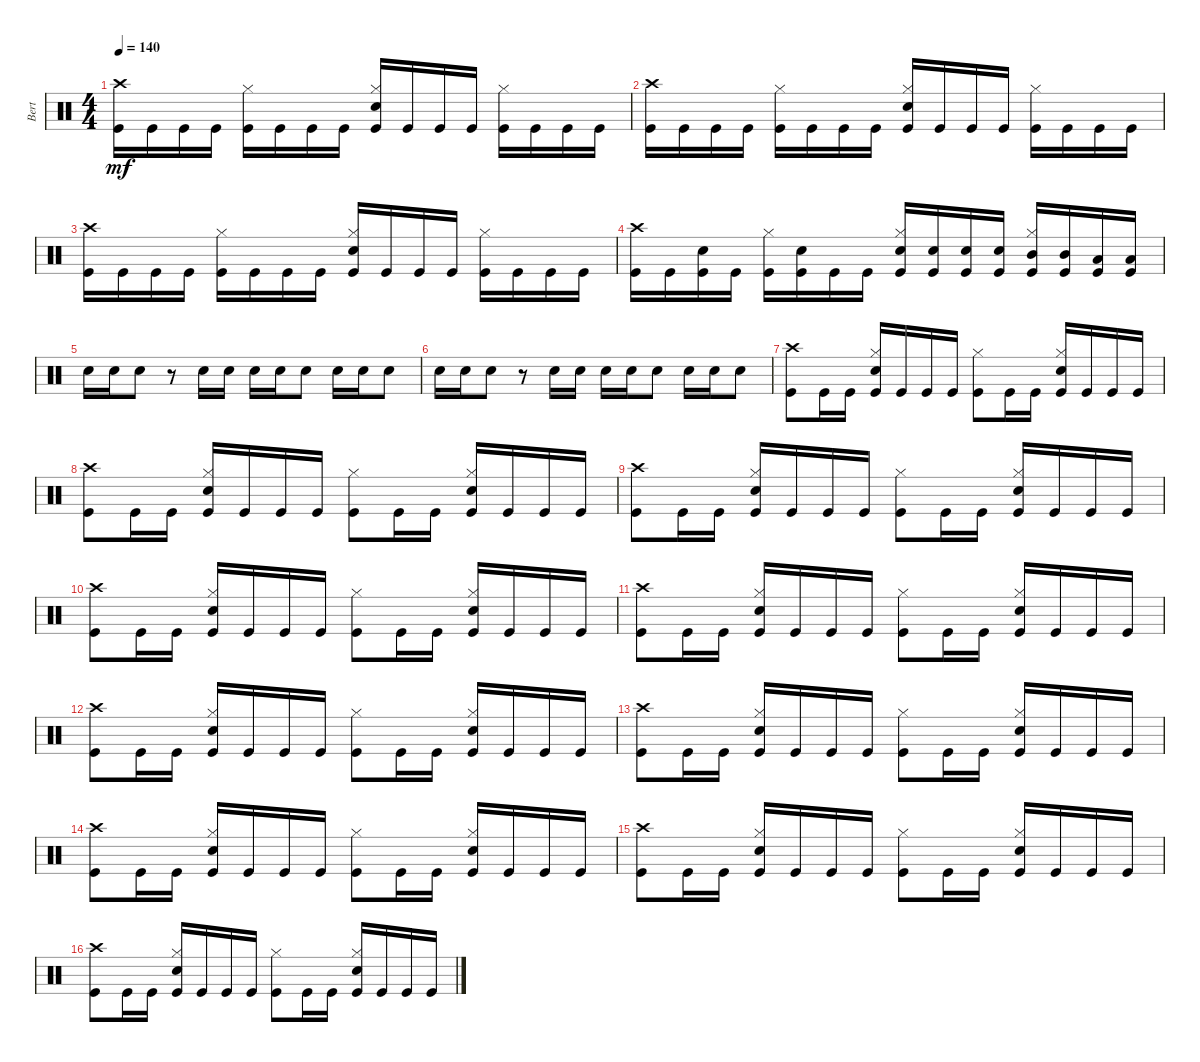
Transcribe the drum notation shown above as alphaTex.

\track ("Bert" "Bert") {instrument percussion}
\staff {score}
\articulation defaults
\ts (4 4)
\tempo 140
\clef neutral
\ks c
("Kick (hit)" "Crash high (hit)").16{dy mf} "Kick (hit)".16 "Kick (hit)".16 "Kick (hit)".16 ("Hi-Hat (closed)" "Kick (hit)").16 "Kick (hit)".16 "Kick (hit)".16 "Kick (hit)".16 ("Hi-Hat (closed)" "Electric Snare (hit)" "Kick (hit)").16 "Kick (hit)".16 "Kick (hit)".16 "Kick (hit)".16 ("Hi-Hat (closed)" "Kick (hit)").16 "Kick (hit)".16 "Kick (hit)".16 "Kick (hit)".16 |
("Crash high (hit)" "Kick (hit)").16 "Kick (hit)".16 "Kick (hit)".16 "Kick (hit)".16 ("Hi-Hat (closed)" "Kick (hit)").16 "Kick (hit)".16 "Kick (hit)".16 "Kick (hit)".16 ("Kick (hit)" "Electric Snare (hit)" "Hi-Hat (closed)").16 "Kick (hit)".16 "Kick (hit)".16 "Kick (hit)".16 ("Kick (hit)" "Hi-Hat (closed)").16 "Kick (hit)".16 "Kick (hit)".16 "Kick (hit)".16 |
("Kick (hit)" "Crash high (hit)").16 "Kick (hit)".16 "Kick (hit)".16 "Kick (hit)".16 ("Kick (hit)" "Hi-Hat (closed)").16 "Kick (hit)".16 "Kick (hit)".16 "Kick (hit)".16 ("Electric Snare (hit)" "Hi-Hat (closed)" "Kick (hit)").16 "Kick (hit)".16 "Kick (hit)".16 "Kick (hit)".16 ("Hi-Hat (closed)" "Kick (hit)").16 "Kick (hit)".16 "Kick (hit)".16 "Kick (hit)".16 |
("Kick (hit)" "Crash high (hit)").16 "Kick (hit)".16 ("Electric Snare (hit)" "Kick (hit)").16 "Kick (hit)".16 ("Hi-Hat (closed)" "Kick (hit)").16 ("Electric Snare (hit)" "Kick (hit)").16 "Kick (hit)".16 "Kick (hit)".16 ("Kick (hit)" "Hi-Hat (closed)" "Electric Snare (hit)").16 ("Kick (hit)" "Electric Snare (hit)").16 ("Kick (hit)" "Electric Snare (hit)").16 ("Electric Snare (hit)" "Kick (hit)").16 ("Kick (hit)" "Mid Tom (hit)" "Hi-Hat (closed)").16 ("Kick (hit)" "Mid Tom (hit)").16 ("Low Tom (hit)" "Kick (hit)").16 ("Low Tom (hit)" "Kick (hit)").16 |
"Electric Snare (hit)".16 "Electric Snare (hit)".16 "Electric Snare (hit)".8 r.8 "Electric Snare (hit)".16 "Electric Snare (hit)".16 "Electric Snare (hit)".16 "Electric Snare (hit)".16 "Electric Snare (hit)".8 "Electric Snare (hit)".16 "Electric Snare (hit)".16 "Electric Snare (hit)".8 |
"Electric Snare (hit)".16 "Electric Snare (hit)".16 "Electric Snare (hit)".8 r.8 "Electric Snare (hit)".16 "Electric Snare (hit)".16 "Electric Snare (hit)".16 "Electric Snare (hit)".16 "Electric Snare (hit)".8 "Electric Snare (hit)".16 "Electric Snare (hit)".16 "Electric Snare (hit)".8 |
("Kick (hit)" "Crash high (hit)").8 "Kick (hit)".16 "Kick (hit)".16 ("Hi-Hat (closed)" "Electric Snare (hit)" "Kick (hit)").16 "Kick (hit)".16 "Kick (hit)".16 "Kick (hit)".16 ("Kick (hit)" "Hi-Hat (closed)").8 "Kick (hit)".16 "Kick (hit)".16 ("Kick (hit)" "Electric Snare (hit)" "Hi-Hat (closed)").16 "Kick (hit)".16 "Kick (hit)".16 "Kick (hit)".16 |
("Kick (hit)" "Crash high (hit)").8 "Kick (hit)".16 "Kick (hit)".16 ("Kick (hit)" "Electric Snare (hit)" "Hi-Hat (closed)").16 "Kick (hit)".16 "Kick (hit)".16 "Kick (hit)".16 ("Kick (hit)" "Hi-Hat (closed)").8 "Kick (hit)".16 "Kick (hit)".16 ("Kick (hit)" "Electric Snare (hit)" "Hi-Hat (closed)").16 "Kick (hit)".16 "Kick (hit)".16 "Kick (hit)".16 |
("Kick (hit)" "Crash high (hit)").8 "Kick (hit)".16 "Kick (hit)".16 ("Kick (hit)" "Hi-Hat (closed)" "Electric Snare (hit)").16 "Kick (hit)".16 "Kick (hit)".16 "Kick (hit)".16 ("Kick (hit)" "Hi-Hat (closed)").8 "Kick (hit)".16 "Kick (hit)".16 ("Hi-Hat (closed)" "Kick (hit)" "Electric Snare (hit)").16 "Kick (hit)".16 "Kick (hit)".16 "Kick (hit)".16 |
("Kick (hit)" "Crash high (hit)").8 "Kick (hit)".16 "Kick (hit)".16 ("Hi-Hat (closed)" "Electric Snare (hit)" "Kick (hit)").16 "Kick (hit)".16 "Kick (hit)".16 "Kick (hit)".16 ("Hi-Hat (closed)" "Kick (hit)").8 "Kick (hit)".16 "Kick (hit)".16 ("Kick (hit)" "Electric Snare (hit)" "Hi-Hat (closed)").16 "Kick (hit)".16 "Kick (hit)".16 "Kick (hit)".16 |
("Kick (hit)" "Crash high (hit)").8 "Kick (hit)".16 "Kick (hit)".16 ("Electric Snare (hit)" "Hi-Hat (closed)" "Kick (hit)").16 "Kick (hit)".16 "Kick (hit)".16 "Kick (hit)".16 ("Kick (hit)" "Hi-Hat (closed)").8 "Kick (hit)".16 "Kick (hit)".16 ("Kick (hit)" "Hi-Hat (closed)" "Electric Snare (hit)").16 "Kick (hit)".16 "Kick (hit)".16 "Kick (hit)".16 |
("Kick (hit)" "Crash high (hit)").8 "Kick (hit)".16 "Kick (hit)".16 ("Hi-Hat (closed)" "Kick (hit)" "Electric Snare (hit)").16 "Kick (hit)".16 "Kick (hit)".16 "Kick (hit)".16 ("Hi-Hat (closed)" "Kick (hit)").8 "Kick (hit)".16 "Kick (hit)".16 ("Electric Snare (hit)" "Kick (hit)" "Hi-Hat (closed)").16 "Kick (hit)".16 "Kick (hit)".16 "Kick (hit)".16 |
("Crash high (hit)" "Kick (hit)").8 "Kick (hit)".16 "Kick (hit)".16 ("Hi-Hat (closed)" "Electric Snare (hit)" "Kick (hit)").16 "Kick (hit)".16 "Kick (hit)".16 "Kick (hit)".16 ("Kick (hit)" "Hi-Hat (closed)").8 "Kick (hit)".16 "Kick (hit)".16 ("Electric Snare (hit)" "Kick (hit)" "Hi-Hat (closed)").16 "Kick (hit)".16 "Kick (hit)".16 "Kick (hit)".16 |
("Crash high (hit)" "Kick (hit)").8 "Kick (hit)".16 "Kick (hit)".16 ("Kick (hit)" "Electric Snare (hit)" "Hi-Hat (closed)").16 "Kick (hit)".16 "Kick (hit)".16 "Kick (hit)".16 ("Hi-Hat (closed)" "Kick (hit)").8 "Kick (hit)".16 "Kick (hit)".16 ("Electric Snare (hit)" "Kick (hit)" "Hi-Hat (closed)").16 "Kick (hit)".16 "Kick (hit)".16 "Kick (hit)".16 |
("Kick (hit)" "Crash high (hit)").8 "Kick (hit)".16 "Kick (hit)".16 ("Kick (hit)" "Hi-Hat (closed)" "Electric Snare (hit)").16 "Kick (hit)".16 "Kick (hit)".16 "Kick (hit)".16 ("Hi-Hat (closed)" "Kick (hit)").8 "Kick (hit)".16 "Kick (hit)".16 ("Kick (hit)" "Hi-Hat (closed)" "Electric Snare (hit)").16 "Kick (hit)".16 "Kick (hit)".16 "Kick (hit)".16 |
("Kick (hit)" "Crash high (hit)").8 "Kick (hit)".16 "Kick (hit)".16 ("Hi-Hat (closed)" "Kick (hit)" "Electric Snare (hit)").16 "Kick (hit)".16 "Kick (hit)".16 "Kick (hit)".16 ("Hi-Hat (closed)" "Kick (hit)").8 "Kick (hit)".16 "Kick (hit)".16 ("Electric Snare (hit)" "Kick (hit)" "Hi-Hat (closed)").16 "Kick (hit)".16 "Kick (hit)".16 "Kick (hit)".16
